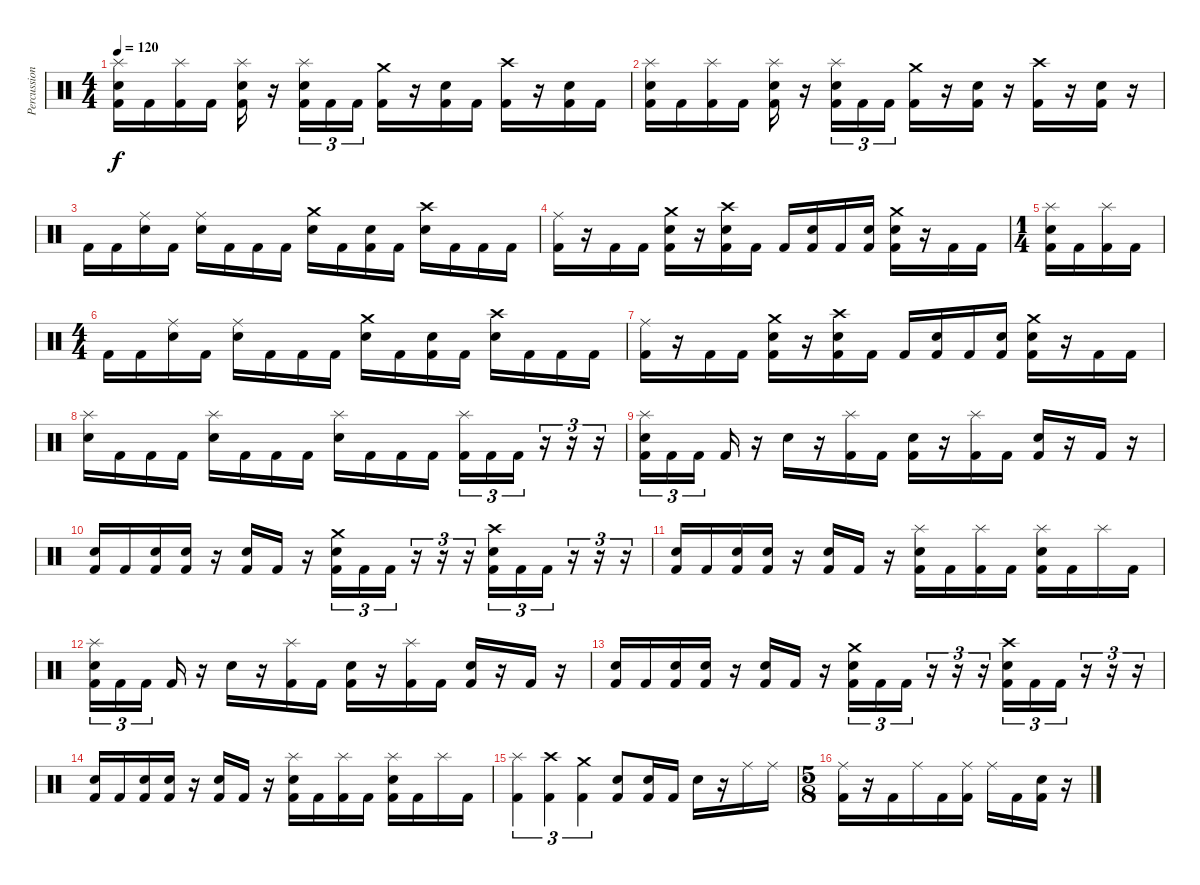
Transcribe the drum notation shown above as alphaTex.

\track ("Percussion" "Percussion") {instrument percussion}
\staff {score}
\articulation defaults
\ts (4 4)
\tempo 120
\clef neutral
\ks c
("Splash (hit)" "Electric Snare (hit)" "Kick (hit) 2").16{dy f} "Kick (hit) 2".16 ("Splash (hit)" "Kick (hit) 2").16 "Kick (hit) 2".16 ("Splash (hit)" "Electric Snare (hit)" "Kick (hit) 2").16 r.16 ("Splash (hit)" "Electric Snare (hit)" "Kick (hit) 2").16{tu (3 2)} "Kick (hit) 2".16{tu (3 2)} "Kick (hit) 2".16{tu (3 2)} ("Crash medium (hit)" "Kick (hit) 2").16 r.16 ("Electric Snare (hit)" "Kick (hit) 2").16 "Kick (hit) 2".16 ("Crash high (hit)" "Kick (hit) 2").16 r.16 ("Electric Snare (hit)" "Kick (hit) 2").16 "Kick (hit) 2".16 |
("Splash (hit)" "Electric Snare (hit)" "Kick (hit) 2").16 "Kick (hit) 2".16 ("Splash (hit)" "Kick (hit) 2").16 "Kick (hit) 2".16 ("Splash (hit)" "Electric Snare (hit)" "Kick (hit) 2").16 r.16 ("Splash (hit)" "Electric Snare (hit)" "Kick (hit) 2").16{tu (3 2)} "Kick (hit) 2".16{tu (3 2)} "Kick (hit) 2".16{tu (3 2)} ("Crash medium (hit)" "Kick (hit) 2").16 r.16 ("Electric Snare (hit)" "Kick (hit) 2").16 r.16 ("Crash high (hit)" "Kick (hit) 2").16 r.16 ("Electric Snare (hit)" "Kick (hit) 2").16 r.16 |
"Kick (hit) 2".16 "Kick (hit) 2".16 ("Ride (middle)" "Electric Snare (hit)").16 "Kick (hit) 2".16 ("Ride (middle)" "Electric Snare (hit)").16 "Kick (hit) 2".16 "Kick (hit) 2".16 "Kick (hit) 2".16 ("Crash medium (hit)" "Electric Snare (hit)").16 "Kick (hit) 2".16 ("Electric Snare (hit)" "Kick (hit) 2").16 "Kick (hit) 2".16 ("Crash high (hit)" "Electric Snare (hit)").16 "Kick (hit) 2".16 "Kick (hit) 2".16 "Kick (hit) 2".16 |
("Ride (middle)" "Kick (hit) 2").16 r.16 "Kick (hit) 2".16 "Kick (hit) 2".16 ("Crash medium (hit)" "Electric Snare (hit)" "Kick (hit) 2").16 r.16 ("Crash high (hit)" "Electric Snare (hit)" "Kick (hit) 2").16 "Kick (hit) 2".16 "Kick (hit) 2".16 ("Electric Snare (hit)" "Kick (hit) 2").16 "Kick (hit) 2".16 ("Electric Snare (hit)" "Kick (hit) 2").16 ("Crash medium (hit)" "Electric Snare (hit)" "Kick (hit) 2").16 r.16 "Kick (hit) 2".16 "Kick (hit) 2".16 |
\ts (1 4)
("Splash (hit)" "Electric Snare (hit)" "Kick (hit) 2").16 "Kick (hit) 2".16 ("Splash (hit)" "Kick (hit) 2").16 "Kick (hit) 2".16 |
\ts (4 4)
"Kick (hit) 2".16 "Kick (hit) 2".16 ("Ride (middle)" "Electric Snare (hit)").16 "Kick (hit) 2".16 ("Ride (middle)" "Electric Snare (hit)").16 "Kick (hit) 2".16 "Kick (hit) 2".16 "Kick (hit) 2".16 ("Crash medium (hit)" "Electric Snare (hit)").16 "Kick (hit) 2".16 ("Electric Snare (hit)" "Kick (hit) 2").16 "Kick (hit) 2".16 ("Crash high (hit)" "Electric Snare (hit)").16 "Kick (hit) 2".16 "Kick (hit) 2".16 "Kick (hit) 2".16 |
("Ride (middle)" "Kick (hit) 2").16 r.16 "Kick (hit) 2".16 "Kick (hit) 2".16 ("Crash medium (hit)" "Electric Snare (hit)" "Kick (hit) 2").16 r.16 ("Crash high (hit)" "Electric Snare (hit)" "Kick (hit) 2").16 "Kick (hit) 2".16 "Kick (hit) 2".16 ("Electric Snare (hit)" "Kick (hit) 2").16 "Kick (hit) 2".16 ("Electric Snare (hit)" "Kick (hit) 2").16 ("Crash medium (hit)" "Electric Snare (hit)" "Kick (hit) 2").16 r.16 "Kick (hit) 2".16 "Kick (hit) 2".16 |
("Splash (hit)" "Electric Snare (hit)").16 "Kick (hit) 2".16 "Kick (hit) 2".16 "Kick (hit) 2".16 ("Splash (hit)" "Electric Snare (hit)").16 "Kick (hit) 2".16 "Kick (hit) 2".16 "Kick (hit) 2".16 ("Splash (hit)" "Electric Snare (hit)").16 "Kick (hit) 2".16 "Kick (hit) 2".16 "Kick (hit) 2".16 ("Splash (hit)" "Kick (hit) 2").16{tu (3 2)} "Kick (hit) 2".16{tu (3 2)} "Kick (hit) 2".16{tu (3 2)} r.16{tu (3 2)} r.16{tu (3 2)} r.16{tu (3 2)} |
("Splash (hit)" "Electric Snare (hit)" "Kick (hit) 2").16{tu (3 2)} "Kick (hit) 2".16{tu (3 2)} "Kick (hit) 2".16{tu (3 2) beam splitsecondary} "Kick (hit) 2".16 r.16 "Electric Snare (hit)".16 r.16 ("Splash (hit)" "Kick (hit) 2").16 "Kick (hit) 2".16 ("Electric Snare (hit)" "Kick (hit) 2").16 r.16 ("Splash (hit)" "Kick (hit) 2").16 "Kick (hit) 2".16 ("Electric Snare (hit)" "Kick (hit) 2").16 r.16 "Kick (hit) 2".16 r.16 |
("Electric Snare (hit)" "Kick (hit) 2").16 "Kick (hit) 2".16 ("Electric Snare (hit)" "Kick (hit) 2").16 ("Electric Snare (hit)" "Kick (hit) 2").16 r.16 ("Electric Snare (hit)" "Kick (hit) 2").16 "Kick (hit) 2".16 r.16 ("Crash medium (hit)" "Electric Snare (hit)" "Kick (hit) 2").16{tu (3 2)} "Kick (hit) 2".16{tu (3 2)} "Kick (hit) 2".16{tu (3 2)} r.16{tu (3 2)} r.16{tu (3 2)} r.16{tu (3 2)} ("Crash high (hit)" "Electric Snare (hit)" "Kick (hit) 2").16{tu (3 2)} "Kick (hit) 2".16{tu (3 2)} "Kick (hit) 2".16{tu (3 2)} r.16{tu (3 2)} r.16{tu (3 2)} r.16{tu (3 2)} |
("Electric Snare (hit)" "Kick (hit) 2").16 "Kick (hit) 2".16 ("Electric Snare (hit)" "Kick (hit) 2").16 ("Electric Snare (hit)" "Kick (hit) 2").16 r.16 ("Electric Snare (hit)" "Kick (hit) 2").16 "Kick (hit) 2".16 r.16 ("Splash (hit)" "Electric Snare (hit)" "Kick (hit) 2").16 "Kick (hit) 2".16 ("Splash (hit)" "Kick (hit) 2").16 "Kick (hit) 2".16 ("Splash (hit)" "Electric Snare (hit)" "Kick (hit) 2").16 "Kick (hit) 2".16 "Splash (hit)".16 "Kick (hit) 2".16 |
("Splash (hit)" "Electric Snare (hit)" "Kick (hit) 2").16{tu (3 2)} "Kick (hit) 2".16{tu (3 2)} "Kick (hit) 2".16{tu (3 2) beam splitsecondary} "Kick (hit) 2".16 r.16 "Electric Snare (hit)".16 r.16 ("Splash (hit)" "Kick (hit) 2").16 "Kick (hit) 2".16 ("Electric Snare (hit)" "Kick (hit) 2").16 r.16 ("Splash (hit)" "Kick (hit) 2").16 "Kick (hit) 2".16 ("Electric Snare (hit)" "Kick (hit) 2").16 r.16 "Kick (hit) 2".16 r.16 |
("Electric Snare (hit)" "Kick (hit) 2").16 "Kick (hit) 2".16 ("Electric Snare (hit)" "Kick (hit) 2").16 ("Electric Snare (hit)" "Kick (hit) 2").16 r.16 ("Electric Snare (hit)" "Kick (hit) 2").16 "Kick (hit) 2".16 r.16 ("Crash medium (hit)" "Electric Snare (hit)" "Kick (hit) 2").16{tu (3 2)} "Kick (hit) 2".16{tu (3 2)} "Kick (hit) 2".16{tu (3 2)} r.16{tu (3 2)} r.16{tu (3 2)} r.16{tu (3 2)} ("Crash high (hit)" "Electric Snare (hit)" "Kick (hit) 2").16{tu (3 2)} "Kick (hit) 2".16{tu (3 2)} "Kick (hit) 2".16{tu (3 2)} r.16{tu (3 2)} r.16{tu (3 2)} r.16{tu (3 2)} |
("Electric Snare (hit)" "Kick (hit) 2").16 "Kick (hit) 2".16 ("Electric Snare (hit)" "Kick (hit) 2").16 ("Electric Snare (hit)" "Kick (hit) 2").16 r.16 ("Electric Snare (hit)" "Kick (hit) 2").16 "Kick (hit) 2".16 r.16 ("Splash (hit)" "Electric Snare (hit)" "Kick (hit) 2").16 "Kick (hit) 2".16 ("Splash (hit)" "Kick (hit) 2").16 "Kick (hit) 2".16 ("Splash (hit)" "Electric Snare (hit)" "Kick (hit) 2").16 "Kick (hit) 2".16 "Splash (hit)".16 "Kick (hit) 2".16 |
("Splash (hit)" "Kick (hit) 2").4{tu (3 2)} ("Crash high (hit)" "Kick (hit) 2").4{tu (3 2)} ("Crash medium (hit)" "Kick (hit) 2").4{tu (3 2)} ("Electric Snare (hit)" "Kick (hit) 2").8 ("Electric Snare (hit)" "Kick (hit) 2").16 "Kick (hit) 2".16 "Electric Snare (hit)".16 r.16 "Ride (middle)".16 "Ride (middle)".16 |
\ts (5 8)
("Ride (middle)" "Kick (hit) 2").16 r.16 "Kick (hit) 2".16 "Ride (middle)".16 "Kick (hit) 2".16 ("Ride (middle)" "Kick (hit) 2").16 "Ride (middle)".16 "Kick (hit) 2".16 ("Electric Snare (hit)" "Kick (hit) 2").16 r.16
